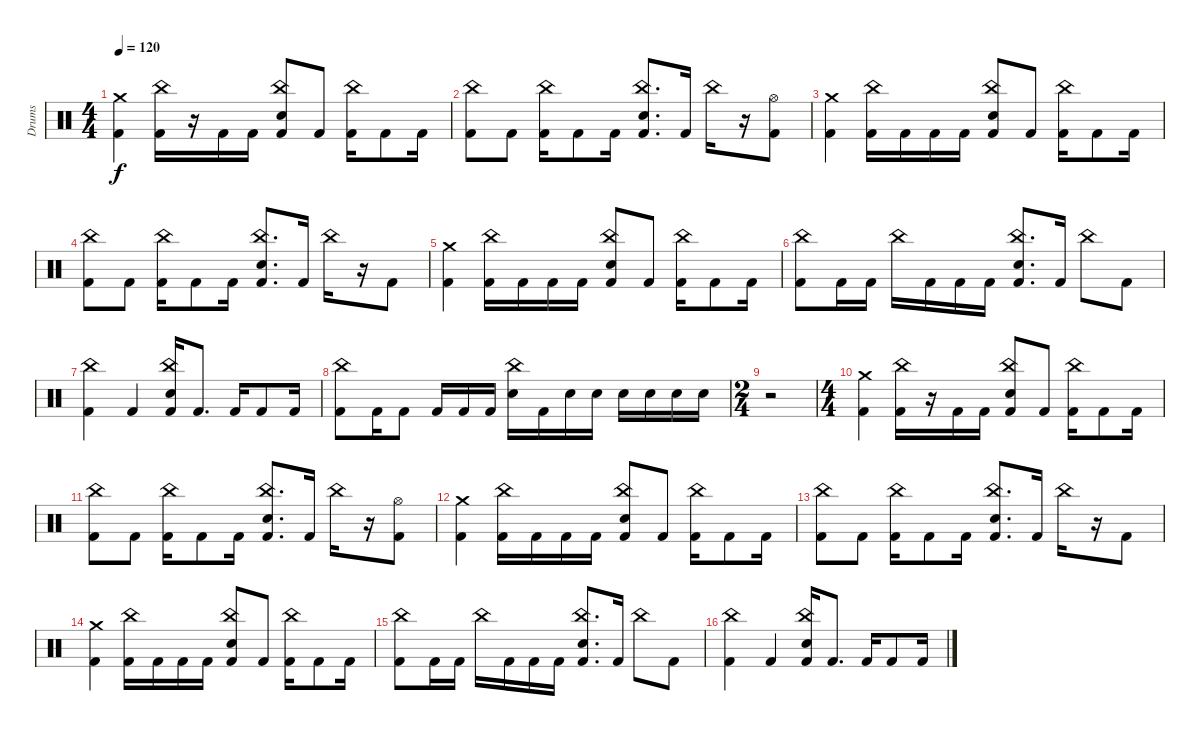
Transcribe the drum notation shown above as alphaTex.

\track ("Drums" "Drums") {instrument percussion}
\staff {score}
\articulation defaults
\ts (4 4)
\tempo 120
\clef neutral
\ks c
("Crash medium (hit)" "Kick (hit) 2").4{dy f} ("China (hit)" "Kick (hit) 2").16 r.16 "Kick (hit) 2".16 "Kick (hit) 2".16 ("China (hit)" "Electric Snare (hit)" "Kick (hit) 2").8 "Kick (hit) 2".8 ("China (hit)" "Kick (hit) 2").16 "Kick (hit) 2".8 "Kick (hit) 2".16 |
("China (hit)" "Kick (hit) 2").8 "Kick (hit) 2".8 ("China (hit)" "Kick (hit) 2").16 "Kick (hit) 2".8 "Kick (hit) 2".16 ("China (hit)" "Electric Snare (hit)" "Kick (hit) 2").8{d} "Kick (hit) 2".16 "China (hit)".16 r.16 ("Hi-Hat (open)" "Kick (hit) 2").8 |
("Crash medium (hit)" "Kick (hit) 2").4 ("China (hit)" "Kick (hit) 2").16 "Kick (hit) 2".16 "Kick (hit) 2".16 "Kick (hit) 2".16 ("China (hit)" "Electric Snare (hit)" "Kick (hit) 2").8 "Kick (hit) 2".8 ("China (hit)" "Kick (hit) 2").16 "Kick (hit) 2".8 "Kick (hit) 2".16 |
("China (hit)" "Kick (hit) 2").8 "Kick (hit) 2".8 ("China (hit)" "Kick (hit) 2").16 "Kick (hit) 2".8 "Kick (hit) 2".16 ("China (hit)" "Electric Snare (hit)" "Kick (hit) 2").8{d} "Kick (hit) 2".16 "China (hit)".16 r.16 "Kick (hit) 2".8 |
("Crash medium (hit)" "Kick (hit) 2").4 ("China (hit)" "Kick (hit) 2").16 "Kick (hit) 2".16 "Kick (hit) 2".16 "Kick (hit) 2".16 ("China (hit)" "Electric Snare (hit)" "Kick (hit) 2").8 "Kick (hit) 2".8 ("China (hit)" "Kick (hit) 2").16 "Kick (hit) 2".8 "Kick (hit) 2".16 |
("China (hit)" "Kick (hit) 2").8 "Kick (hit) 2".16 "Kick (hit) 2".16 "China (hit)".16 "Kick (hit) 2".16 "Kick (hit) 2".16 "Kick (hit) 2".16 ("China (hit)" "Electric Snare (hit)" "Kick (hit) 2").8{d} "Kick (hit) 2".16 "China (hit)".8 "Kick (hit) 2".8 |
("China (hit)" "Kick (hit) 2").4 "Kick (hit) 2".4 ("China (hit)" "Electric Snare (hit)" "Kick (hit) 2").16 "Kick (hit) 2".8{d} "Kick (hit) 2".16 "Kick (hit) 2".8 "Kick (hit) 2".16 |
("China (hit)" "Kick (hit) 2").8 "Kick (hit) 2".16 "Kick (hit) 2".8 "Kick (hit) 2".16 "Kick (hit) 2".16 "Kick (hit) 2".16 ("China (hit)" "Electric Snare (hit)").16 "Kick (hit) 2".16 "Electric Snare (hit)".16 "Electric Snare (hit)".16 "Electric Snare (hit)".16 "Electric Snare (hit)".16 "Electric Snare (hit)".16 "Electric Snare (hit)".16 |
\ts (2 4)
r.2 |
\ts (4 4)
("Crash medium (hit)" "Kick (hit) 2").4 ("China (hit)" "Kick (hit) 2").16 r.16 "Kick (hit) 2".16 "Kick (hit) 2".16 ("China (hit)" "Electric Snare (hit)" "Kick (hit) 2").8 "Kick (hit) 2".8 ("China (hit)" "Kick (hit) 2").16 "Kick (hit) 2".8 "Kick (hit) 2".16 |
("China (hit)" "Kick (hit) 2").8 "Kick (hit) 2".8 ("China (hit)" "Kick (hit) 2").16 "Kick (hit) 2".8 "Kick (hit) 2".16 ("China (hit)" "Electric Snare (hit)" "Kick (hit) 2").8{d} "Kick (hit) 2".16 "China (hit)".16 r.16 ("Hi-Hat (open)" "Kick (hit) 2").8 |
("Crash medium (hit)" "Kick (hit) 2").4 ("China (hit)" "Kick (hit) 2").16 "Kick (hit) 2".16 "Kick (hit) 2".16 "Kick (hit) 2".16 ("China (hit)" "Electric Snare (hit)" "Kick (hit) 2").8 "Kick (hit) 2".8 ("China (hit)" "Kick (hit) 2").16 "Kick (hit) 2".8 "Kick (hit) 2".16 |
("China (hit)" "Kick (hit) 2").8 "Kick (hit) 2".8 ("China (hit)" "Kick (hit) 2").16 "Kick (hit) 2".8 "Kick (hit) 2".16 ("China (hit)" "Electric Snare (hit)" "Kick (hit) 2").8{d} "Kick (hit) 2".16 "China (hit)".16 r.16 "Kick (hit) 2".8 |
("Crash medium (hit)" "Kick (hit) 2").4 ("China (hit)" "Kick (hit) 2").16 "Kick (hit) 2".16 "Kick (hit) 2".16 "Kick (hit) 2".16 ("China (hit)" "Electric Snare (hit)" "Kick (hit) 2").8 "Kick (hit) 2".8 ("China (hit)" "Kick (hit) 2").16 "Kick (hit) 2".8 "Kick (hit) 2".16 |
("China (hit)" "Kick (hit) 2").8 "Kick (hit) 2".16 "Kick (hit) 2".16 "China (hit)".16 "Kick (hit) 2".16 "Kick (hit) 2".16 "Kick (hit) 2".16 ("China (hit)" "Electric Snare (hit)" "Kick (hit) 2").8{d} "Kick (hit) 2".16 "China (hit)".8 "Kick (hit) 2".8 |
("China (hit)" "Kick (hit) 2").4 "Kick (hit) 2".4 ("China (hit)" "Electric Snare (hit)" "Kick (hit) 2").16 "Kick (hit) 2".8{d} "Kick (hit) 2".16 "Kick (hit) 2".8 "Kick (hit) 2".16
